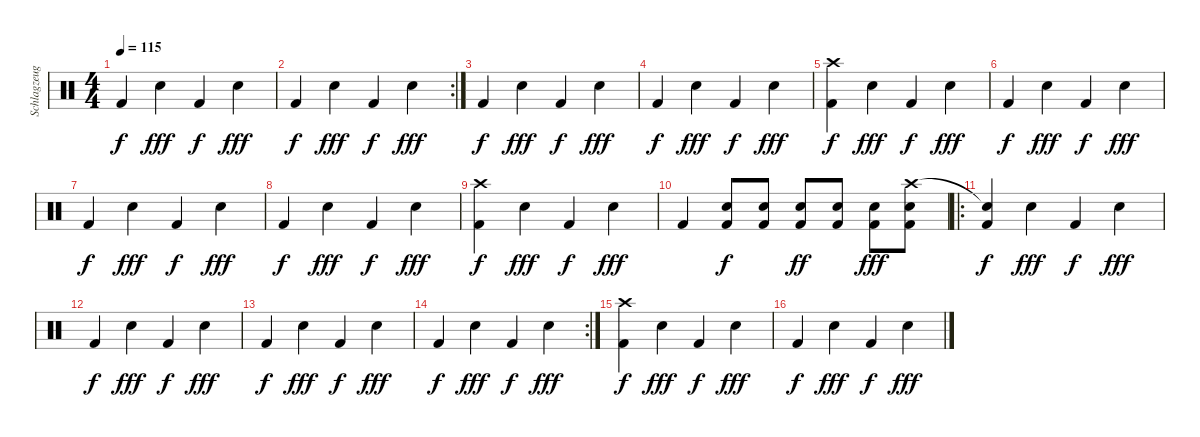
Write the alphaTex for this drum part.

\track ("Schlagzeug" "Schlagzeug") {instrument percussion}
\staff {score}
\articulation defaults
\ts (4 4)
\tempo 115
\clef neutral
\ks c "Kick (hit) 2".4{dy f} "Electric Snare (hit)".4{dy fff} "Kick (hit) 2".4{dy f} "Electric Snare (hit)".4{dy fff}
|
\rc 2 "Kick (hit) 2".4{dy f} "Electric Snare (hit)".4{dy fff} "Kick (hit) 2".4{dy f} "Electric Snare (hit)".4{dy fff}
|
"Kick (hit) 2".4{dy f} "Electric Snare (hit)".4{dy fff} "Kick (hit) 2".4{dy f} "Electric Snare (hit)".4{dy fff} |
"Kick (hit) 2".4{dy f} "Electric Snare (hit)".4{dy fff} "Kick (hit) 2".4{dy f} "Electric Snare (hit)".4{dy fff} |
("Crash high (hit)" "Kick (hit) 2").4{dy f} "Electric Snare (hit)".4{dy fff} "Kick (hit) 2".4{dy f} "Electric Snare (hit)".4{dy fff} |
"Kick (hit) 2".4{dy f} "Electric Snare (hit)".4{dy fff} "Kick (hit) 2".4{dy f} "Electric Snare (hit)".4{dy fff} |
"Kick (hit) 2".4{dy f} "Electric Snare (hit)".4{dy fff} "Kick (hit) 2".4{dy f} "Electric Snare (hit)".4{dy fff} |
"Kick (hit) 2".4{dy f} "Electric Snare (hit)".4{dy fff} "Kick (hit) 2".4{dy f} "Electric Snare (hit)".4{dy fff} |
("Crash high (hit)" "Kick (hit) 2").4{dy f} "Electric Snare (hit)".4{dy fff} "Kick (hit) 2".4{dy f} "Electric Snare (hit)".4{dy fff} |
"Kick (hit) 2".4 ("Electric Snare (hit)" "Kick (hit) 2").8{dy f} ("Electric Snare (hit)" "Kick (hit) 2").8 ("Electric Snare (hit)" "Kick (hit) 2").8{dy ff} ("Electric Snare (hit)" "Kick (hit) 2").8 ("Electric Snare (hit)" "Kick (hit) 2").8{dy fff} ("Crash high (hit)" "Electric Snare (hit)" "Kick (hit) 2").8 |
\ro
("Snare (hit)"{t} "Kick (hit) 2").4{dy f} "Electric Snare (hit)".4{dy fff} "Kick (hit) 2".4{dy f} "Electric Snare (hit)".4{dy fff} |
"Kick (hit) 2".4{dy f} "Electric Snare (hit)".4{dy fff} "Kick (hit) 2".4{dy f} "Electric Snare (hit)".4{dy fff} |
"Kick (hit) 2".4{dy f} "Electric Snare (hit)".4{dy fff} "Kick (hit) 2".4{dy f} "Electric Snare (hit)".4{dy fff} |
\rc 2 "Kick (hit) 2".4{dy f} "Electric Snare (hit)".4{dy fff} "Kick (hit) 2".4{dy f} "Electric Snare (hit)".4{dy fff}
|
("Crash high (hit)" "Kick (hit) 2").4{dy f} "Electric Snare (hit)".4{dy fff} "Kick (hit) 2".4{dy f} "Electric Snare (hit)".4{dy fff} |
"Kick (hit) 2".4{dy f} "Electric Snare (hit)".4{dy fff} "Kick (hit) 2".4{dy f} "Electric Snare (hit)".4{dy fff}
